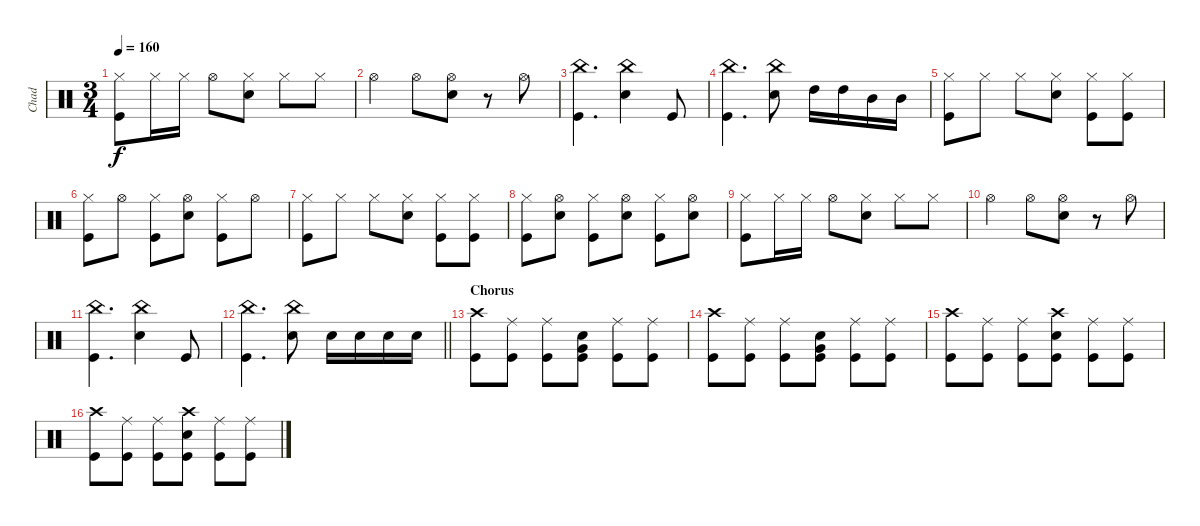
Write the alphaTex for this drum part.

\track ("Chad" "Chad") {instrument percussion}
\staff {score}
\articulation defaults
\ts (3 4)
\tempo 160
\clef neutral
\ks c
("Hi-Hat (closed)" "Kick (hit)").8{dy f} "Hi-Hat (closed)".16 "Hi-Hat (closed)".16 "Hi-Hat (open)".8 ("Hi-Hat (closed)" "Snare (hit) 2").8 "Hi-Hat (closed)".8 "Hi-Hat (closed)".8 |
"Hi-Hat (open)".4 "Hi-Hat (open)".8 ("Hi-Hat (open)" "Snare (hit) 2").8 r.8 "Hi-Hat (open)".8 |
("China (hit)" "Kick (hit)").4{d} ("China (hit)" "Snare (hit) 2").4 "Kick (hit)".8 |
("China (hit)" "Kick (hit)").4{d} ("China (hit)" "Snare (hit) 2").8 "High Tom (hit)".16 "High Tom (hit)".16 "Mid Tom (hit)".16 "Mid Tom (hit)".16 |
("Hi-Hat (closed)" "Kick (hit)").8 "Hi-Hat (closed)".8 "Hi-Hat (closed)".8 ("Hi-Hat (closed)" "Snare (hit) 2").8 ("Hi-Hat (closed)" "Kick (hit)").8 ("Hi-Hat (closed)" "Kick (hit)").8 |
("Hi-Hat (closed)" "Kick (hit)").8 "Hi-Hat (open)".8 ("Hi-Hat (closed)" "Kick (hit)").8 ("Hi-Hat (open)" "Snare (hit) 2").8 ("Hi-Hat (closed)" "Kick (hit)").8 "Hi-Hat (open)".8 |
("Hi-Hat (closed)" "Kick (hit)").8 "Hi-Hat (closed)".8 "Hi-Hat (closed)".8 ("Hi-Hat (closed)" "Snare (hit) 2").8 ("Hi-Hat (closed)" "Kick (hit)").8 ("Hi-Hat (closed)" "Kick (hit)").8 |
("Hi-Hat (closed)" "Kick (hit)").8 ("Hi-Hat (open)" "Snare (hit) 2").8 ("Hi-Hat (closed)" "Kick (hit)").8 ("Hi-Hat (open)" "Snare (hit) 2").8 ("Hi-Hat (closed)" "Kick (hit)").8 ("Hi-Hat (open)" "Snare (hit) 2").8 |
("Hi-Hat (closed)" "Kick (hit)").8 "Hi-Hat (closed)".16 "Hi-Hat (closed)".16 "Hi-Hat (open)".8 ("Hi-Hat (closed)" "Snare (hit) 2").8 "Hi-Hat (closed)".8 "Hi-Hat (closed)".8 |
"Hi-Hat (open)".4 "Hi-Hat (open)".8 ("Hi-Hat (open)" "Snare (hit) 2").8 r.8 "Hi-Hat (open)".8 |
("China (hit)" "Kick (hit)").4{d} ("China (hit)" "Snare (hit) 2").4 "Kick (hit)".8 |
\barLineRight lightlight
("China (hit)" "Kick (hit)").4{d} ("China (hit)" "Snare (hit) 2").8 "Snare (hit) 2".16 "Snare (hit) 2".16 "Snare (hit) 2".16 "Snare (hit) 2".16 |
\section ("" "Chorus")
("Kick (hit)" "Crash high (hit)").8 ("Kick (hit)" "Ride (middle)").8 ("Kick (hit)" "Ride (middle)").8 ("Kick (hit)" "Snare (hit) 2" "Very Low Tom (hit)").8 ("Kick (hit)" "Ride (middle)").8 ("Kick (hit)" "Ride (middle)").8 |
("Kick (hit)" "Crash high (hit)").8 ("Kick (hit)" "Ride (middle)").8 ("Kick (hit)" "Ride (middle)").8 ("Kick (hit)" "Snare (hit) 2" "Very Low Tom (hit)").8 ("Kick (hit)" "Ride (middle)").8 ("Ride (middle)" "Kick (hit)").8 |
("Crash high (hit)" "Kick (hit)").8 ("Ride (middle)" "Kick (hit)").8 ("Ride (middle)" "Kick (hit)").8 ("Crash high (hit)" "Snare (hit) 2" "Kick (hit)").8 ("Ride (middle)" "Kick (hit)").8 ("Ride (middle)" "Kick (hit)").8 |
("Crash high (hit)" "Kick (hit)").8 ("Ride (middle)" "Kick (hit)").8 ("Ride (middle)" "Kick (hit)").8 ("Crash high (hit)" "Snare (hit) 2" "Kick (hit)").8 ("Ride (middle)" "Kick (hit)").8 ("Ride (middle)" "Kick (hit)").8
